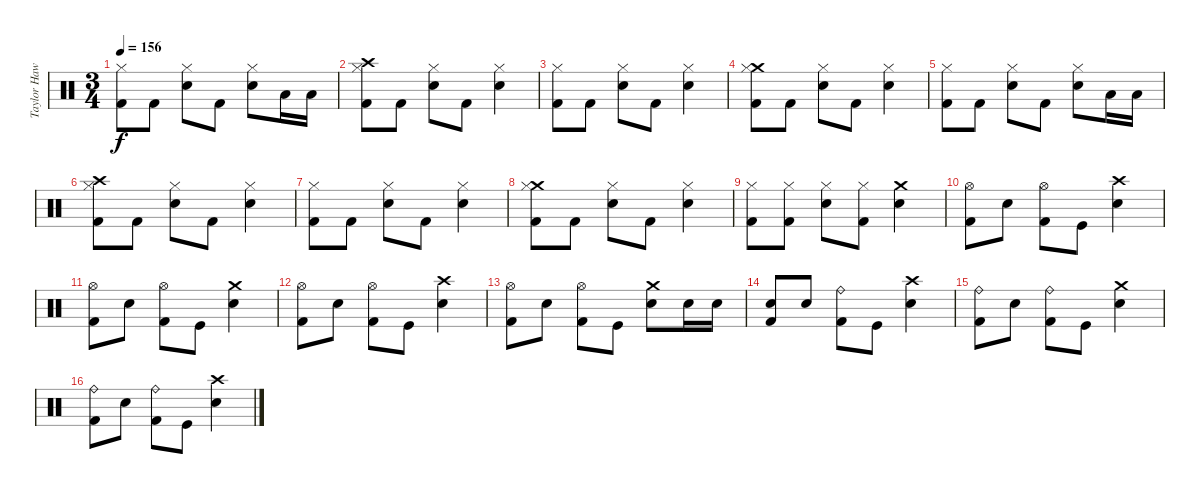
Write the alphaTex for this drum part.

\track ("Taylor Hawkins" "Taylor Haw") {instrument percussion}
\staff {score}
\articulation defaults
\ts (3 4)
\tempo 156
\clef neutral
\ks c
("Hi-Hat (closed)" "Kick (hit) 2").8{dy f} "Kick (hit) 2".8 ("Electric Snare (hit)" "Hi-Hat (closed)").8 "Kick (hit) 2".8 ("Electric Snare (hit)" "Hi-Hat (closed)").8 "Low Tom (hit)".16 "Low Tom (hit)".16 |
("Crash high (hit)" "Hi-Hat (closed)" "Kick (hit) 2").8 "Kick (hit) 2".8 ("Electric Snare (hit)" "Hi-Hat (closed)").8 "Kick (hit) 2".8 ("Electric Snare (hit)" "Hi-Hat (closed)").4 |
("Hi-Hat (closed)" "Kick (hit) 2").8 "Kick (hit) 2".8 ("Electric Snare (hit)" "Hi-Hat (closed)").8 "Kick (hit) 2".8 ("Electric Snare (hit)" "Hi-Hat (closed)").4 |
("Crash medium (hit)" "Hi-Hat (closed)" "Kick (hit) 2").8 "Kick (hit) 2".8 ("Electric Snare (hit)" "Hi-Hat (closed)").8 "Kick (hit) 2".8 ("Electric Snare (hit)" "Hi-Hat (closed)").4 |
("Hi-Hat (closed)" "Kick (hit) 2").8 "Kick (hit) 2".8 ("Electric Snare (hit)" "Hi-Hat (closed)").8 "Kick (hit) 2".8 ("Electric Snare (hit)" "Hi-Hat (closed)").8 "Low Tom (hit)".16 "Low Tom (hit)".16 |
("Crash high (hit)" "Hi-Hat (closed)" "Kick (hit) 2").8 "Kick (hit) 2".8 ("Electric Snare (hit)" "Hi-Hat (closed)").8 "Kick (hit) 2".8 ("Electric Snare (hit)" "Hi-Hat (closed)").4 |
("Hi-Hat (closed)" "Kick (hit) 2").8 "Kick (hit) 2".8 ("Electric Snare (hit)" "Hi-Hat (closed)").8 "Kick (hit) 2".8 ("Electric Snare (hit)" "Hi-Hat (closed)").4 |
("Crash medium (hit)" "Hi-Hat (closed)" "Kick (hit) 2").8 "Kick (hit) 2".8 ("Electric Snare (hit)" "Hi-Hat (closed)").8 "Kick (hit) 2".8 ("Electric Snare (hit)" "Hi-Hat (closed)").4 |
("Hi-Hat (closed)" "Kick (hit) 2").8 ("Hi-Hat (closed)" "Kick (hit) 2").8 ("Electric Snare (hit)" "Hi-Hat (closed)").8 ("Hi-Hat (closed)" "Kick (hit) 2").8 ("Electric Snare (hit)" "Crash medium (hit)").4 |
("Hi-Hat (open)" "Kick (hit) 2").8 "Electric Snare (hit)".8 ("Hi-Hat (open)" "Kick (hit) 2").8 "Kick (hit)".8 ("Crash high (hit)" "Electric Snare (hit)").4 |
("Hi-Hat (open)" "Kick (hit) 2").8 "Electric Snare (hit)".8 ("Hi-Hat (open)" "Kick (hit) 2").8 "Kick (hit)".8 ("Crash medium (hit)" "Electric Snare (hit)").4 |
("Hi-Hat (open)" "Kick (hit) 2").8 "Electric Snare (hit)".8 ("Hi-Hat (open)" "Kick (hit) 2").8 "Kick (hit)".8 ("Crash high (hit)" "Electric Snare (hit)").4 |
("Hi-Hat (open)" "Kick (hit) 2").8 "Electric Snare (hit)".8 ("Hi-Hat (open)" "Kick (hit) 2").8 "Kick (hit)".8 ("Crash medium (hit)" "Electric Snare (hit)").8 "Electric Snare (hit)".16 "Electric Snare (hit)".16 |
("Electric Snare (hit)" "Kick (hit) 2").8 "Electric Snare (hit)".8 ("Ride (bell)" "Kick (hit) 2").8 "Kick (hit)".8 ("Crash high (hit)" "Electric Snare (hit)").4 |
("Ride (bell)" "Kick (hit) 2").8 "Electric Snare (hit)".8 ("Ride (bell)" "Kick (hit) 2").8 "Kick (hit)".8 ("Crash medium (hit)" "Electric Snare (hit)").4 |
("Ride (bell)" "Kick (hit) 2").8 "Electric Snare (hit)".8 ("Ride (bell)" "Kick (hit) 2").8 "Kick (hit)".8 ("Crash high (hit)" "Electric Snare (hit)").4
